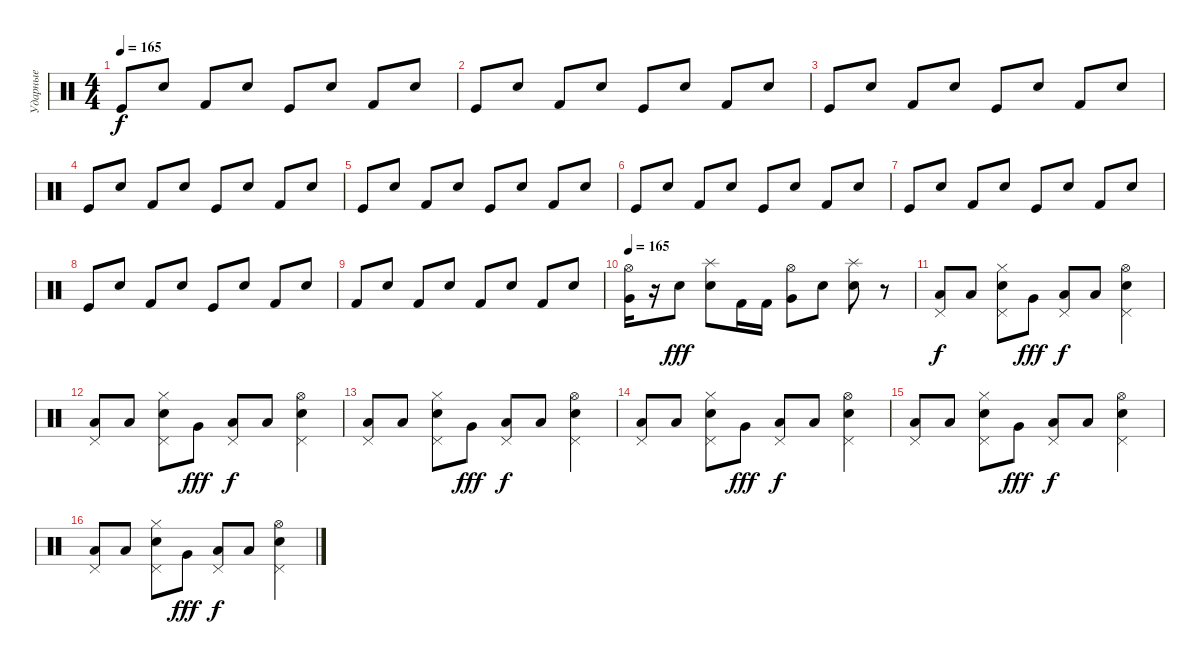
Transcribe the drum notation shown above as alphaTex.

\track ("Ударные" "Ударные") {instrument percussion}
\staff {score}
\articulation defaults
\ts (4 4)
\tempo 165
\clef neutral
\ks c "Kick (hit)".8{dy f} "Snare (hit) 2".8 "Kick (hit) 2".8 "Snare (hit) 2".8 "Kick (hit)".8 "Snare (hit) 2".8 "Kick (hit) 2".8 "Snare (hit) 2".8
|
"Kick (hit)".8 "Snare (hit) 2".8 "Kick (hit) 2".8 "Snare (hit) 2".8 "Kick (hit)".8 "Snare (hit) 2".8 "Kick (hit) 2".8 "Snare (hit) 2".8 |
"Kick (hit)".8 "Snare (hit) 2".8 "Kick (hit) 2".8 "Snare (hit) 2".8 "Kick (hit)".8 "Snare (hit) 2".8 "Kick (hit) 2".8 "Snare (hit) 2".8 |
"Kick (hit)".8 "Snare (hit) 2".8 "Kick (hit) 2".8 "Snare (hit) 2".8 "Kick (hit)".8 "Snare (hit) 2".8 "Kick (hit) 2".8 "Snare (hit) 2".8 |
"Kick (hit)".8 "Snare (hit) 2".8 "Kick (hit) 2".8 "Snare (hit) 2".8 "Kick (hit)".8 "Snare (hit) 2".8 "Kick (hit) 2".8 "Snare (hit) 2".8 |
"Kick (hit)".8 "Snare (hit) 2".8 "Kick (hit) 2".8 "Snare (hit) 2".8 "Kick (hit)".8 "Snare (hit) 2".8 "Kick (hit) 2".8 "Snare (hit) 2".8 |
"Kick (hit)".8 "Snare (hit) 2".8 "Kick (hit) 2".8 "Snare (hit) 2".8 "Kick (hit)".8 "Snare (hit) 2".8 "Kick (hit) 2".8 "Snare (hit) 2".8 |
"Kick (hit)".8 "Snare (hit) 2".8 "Kick (hit) 2".8 "Snare (hit) 2".8 "Kick (hit)".8 "Snare (hit) 2".8 "Kick (hit) 2".8 "Snare (hit) 2".8 |
"Kick (hit) 2".8 "Snare (hit) 2".8 "Kick (hit) 2".8 "Snare (hit) 2".8 "Kick (hit) 2".8 "Snare (hit) 2".8 "Kick (hit) 2".8 "Snare (hit) 2".8 |
\tempo 165
("Very Low Tom (hit)" "Hi-Hat (open)").16 r.16 "Snare (hit) 2".8{dy fff} ("Snare (hit) 2" "Splash (hit)").8 "Kick (hit) 2".16 "Kick (hit) 2".16 ("Very Low Tom (hit)" "Hi-Hat (open)").8 "Snare (hit) 2".8 ("Splash (hit)" "Snare (hit) 2").8 r.8 |
("Pedal Hi-Hat (hit)" "Low Floor Tom (hit)").8{dy f} "Low Floor Tom (hit)".8 ("Pedal Hi-Hat (hit)" "Electric Snare (hit)" "Hi-Hat (closed)").8 "Very Low Tom (hit)".8{dy fff} ("Pedal Hi-Hat (hit)" "Low Floor Tom (hit)").8{dy f} "Low Floor Tom (hit)".8 ("Pedal Hi-Hat (hit)" "Electric Snare (hit)" "Hi-Hat (open)").4 |
("Pedal Hi-Hat (hit)" "Low Floor Tom (hit)").8 "Low Floor Tom (hit)".8 ("Pedal Hi-Hat (hit)" "Electric Snare (hit)" "Hi-Hat (closed)").8 "Very Low Tom (hit)".8{dy fff} ("Pedal Hi-Hat (hit)" "Low Floor Tom (hit)").8{dy f} "Low Floor Tom (hit)".8 ("Pedal Hi-Hat (hit)" "Electric Snare (hit)" "Hi-Hat (open)").4 |
("Pedal Hi-Hat (hit)" "Low Floor Tom (hit)").8 "Low Floor Tom (hit)".8 ("Pedal Hi-Hat (hit)" "Electric Snare (hit)" "Hi-Hat (closed)").8 "Very Low Tom (hit)".8{dy fff} ("Pedal Hi-Hat (hit)" "Low Floor Tom (hit)").8{dy f} "Low Floor Tom (hit)".8 ("Electric Snare (hit)" "Pedal Hi-Hat (hit)" "Hi-Hat (open)").4 |
("Pedal Hi-Hat (hit)" "Low Floor Tom (hit)").8 "Low Floor Tom (hit)".8 ("Pedal Hi-Hat (hit)" "Electric Snare (hit)" "Hi-Hat (closed)").8 "Very Low Tom (hit)".8{dy fff} ("Pedal Hi-Hat (hit)" "Low Floor Tom (hit)").8{dy f} "Low Floor Tom (hit)".8 ("Electric Snare (hit)" "Pedal Hi-Hat (hit)" "Hi-Hat (open)").4 |
("Pedal Hi-Hat (hit)" "Low Floor Tom (hit)").8 "Low Floor Tom (hit)".8 ("Pedal Hi-Hat (hit)" "Electric Snare (hit)" "Hi-Hat (closed)").8 "Very Low Tom (hit)".8{dy fff} ("Pedal Hi-Hat (hit)" "Low Floor Tom (hit)").8{dy f} "Low Floor Tom (hit)".8 ("Electric Snare (hit)" "Pedal Hi-Hat (hit)" "Hi-Hat (open)").4 |
("Pedal Hi-Hat (hit)" "Low Floor Tom (hit)").8 "Low Floor Tom (hit)".8 ("Pedal Hi-Hat (hit)" "Electric Snare (hit)" "Hi-Hat (closed)").8 "Very Low Tom (hit)".8{dy fff} ("Pedal Hi-Hat (hit)" "Low Floor Tom (hit)").8{dy f} "Low Floor Tom (hit)".8 ("Pedal Hi-Hat (hit)" "Electric Snare (hit)" "Hi-Hat (open)").4
